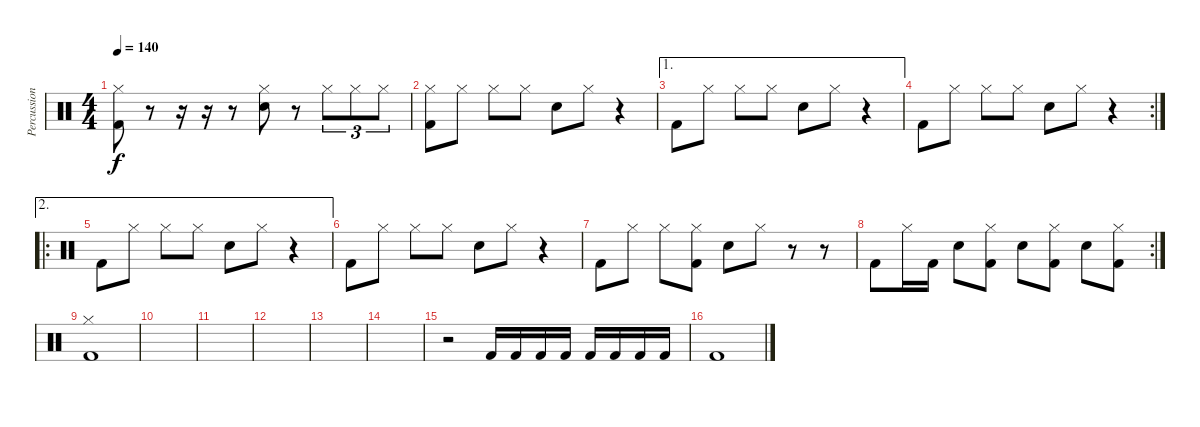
\track ("Percussion" "Percussion") {instrument percussion}
\staff {score}
\articulation defaults
\ts (4 4)
\tempo 140
\clef neutral
\ks c
("Hi-Hat (closed)" "Kick (hit) 2").8{dy f} r.8 r.16 r.16 r.8 ("Hi-Hat (closed)" "Snare (hit) 2").8 r.8 "Hi-Hat (closed)".8{tu (3 2)} "Hi-Hat (closed)".8{tu (3 2)} "Hi-Hat (closed)".8{tu (3 2)} |
("Hi-Hat (closed)" "Kick (hit) 2").8 "Hi-Hat (closed)".8 "Hi-Hat (closed)".8 "Hi-Hat (closed)".8 "Snare (hit) 2".8 "Hi-Hat (closed)".8 r.4 |
\ae 1 "Kick (hit) 2".8 "Hi-Hat (closed)".8 "Hi-Hat (closed)".8 "Hi-Hat (closed)".8 "Snare (hit) 2".8 "Hi-Hat (closed)".8
r.4 |
\rc 2 "Kick (hit) 2".8 "Hi-Hat (closed)".8 "Hi-Hat (closed)".8 "Hi-Hat (closed)".8 "Snare (hit) 2".8 "Hi-Hat (closed)".8
r.4 |
\ae 2
\ro "Kick (hit) 2".8 "Hi-Hat (closed)".8 "Hi-Hat (closed)".8 "Hi-Hat (closed)".8 "Snare (hit) 2".8 "Hi-Hat (closed)".8
r.4 |
"Kick (hit) 2".8 "Hi-Hat (closed)".8 "Hi-Hat (closed)".8 "Hi-Hat (closed)".8 "Snare (hit) 2".8 "Hi-Hat (closed)".8 r.4 |
"Kick (hit) 2".8 "Hi-Hat (closed)".8 "Hi-Hat (closed)".8 ("Hi-Hat (closed)" "Kick (hit) 2").8 "Snare (hit) 2".8 "Hi-Hat (closed)".8 r.8 r.8 |
\rc 2 "Kick (hit) 2".8 "Hi-Hat (closed)".16 "Kick (hit) 2".16 "Snare (hit) 2".8
("Hi-Hat (closed)" "Kick (hit) 2").8 "Snare (hit) 2".8 ("Hi-Hat (closed)" "Kick (hit) 2").8 "Snare (hit) 2".8 ("Hi-Hat (closed)" "Kick (hit) 2").8 |
("Hi-Hat (closed)" "Kick (hit) 2").1 |
|
|
|
|
|
r.2 "Kick (hit) 2".16 "Kick (hit) 2".16 "Kick (hit) 2".16 "Kick (hit) 2".16 "Kick (hit) 2".16 "Kick (hit) 2".16 "Kick (hit) 2".16 "Kick (hit) 2".16 |
"Kick (hit) 2".1
